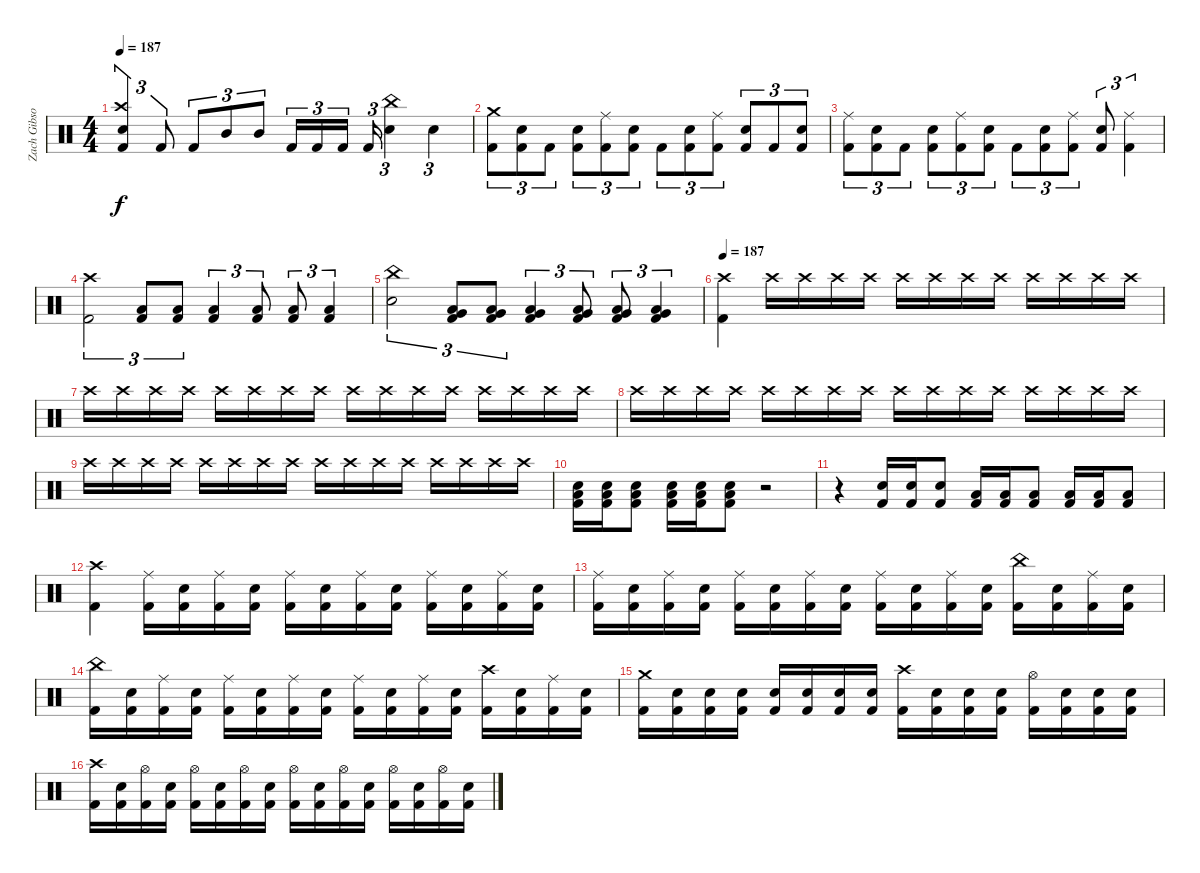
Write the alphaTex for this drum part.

\track ("Zach Gibson (Ex-Drums)" "Zach Gibso") {instrument percussion}
\staff {score}
\articulation defaults
\ts (4 4)
\tempo 187
\clef neutral
\ks c
("Snare (hit) 2" "Crash high (hit)" "Kick (hit) 2").4{tu (3 2) dy f} "Kick (hit) 2".8{tu (3 2)} "Kick (hit) 2".8{tu (3 2)} "Mid Tom (hit)".8{tu (3 2)} "Mid Tom (hit)".8{tu (3 2)} "Kick (hit) 2".16{tu (3 2)} "Kick (hit) 2".16{tu (3 2)} "Kick (hit) 2".16{tu (3 2)} "Kick (hit) 2".16{tu (3 2)} ("China (hit)" "Snare (hit) 2").4{tu (3 2)} "Snare (hit) 2".4{tu (3 2)} |
("Crash medium (hit)" "Kick (hit) 2").8{tu (3 2)} ("Snare (hit) 2" "Kick (hit) 2").8{tu (3 2)} "Kick (hit) 2".8{tu (3 2)} ("Snare (hit) 2" "Kick (hit) 2").8{tu (3 2)} ("Ride (middle)" "Kick (hit) 2").8{tu (3 2)} ("Snare (hit) 2" "Kick (hit) 2").8{tu (3 2)} "Kick (hit) 2".8{tu (3 2)} ("Snare (hit) 2" "Kick (hit) 2").8{tu (3 2)} ("Ride (middle)" "Kick (hit) 2").8{tu (3 2)} ("Snare (hit) 2" "Kick (hit) 2").8{tu (3 2)} "Kick (hit) 2".8{tu (3 2)} ("Snare (hit) 2" "Kick (hit) 2").8{tu (3 2)} |
("Ride (middle)" "Kick (hit) 2").8{tu (3 2)} ("Snare (hit) 2" "Kick (hit) 2").8{tu (3 2)} "Kick (hit) 2".8{tu (3 2)} ("Snare (hit) 2" "Kick (hit) 2").8{tu (3 2)} ("Ride (middle)" "Kick (hit) 2").8{tu (3 2)} ("Snare (hit) 2" "Kick (hit) 2").8{tu (3 2)} "Kick (hit) 2".8{tu (3 2)} ("Snare (hit) 2" "Kick (hit) 2").8{tu (3 2)} ("Ride (middle)" "Kick (hit) 2").8{tu (3 2)} ("Snare (hit) 2" "Kick (hit) 2").8{tu (3 2)} ("Ride (middle)" "Kick (hit) 2").4{tu (3 2)} |
("Crash high (hit)" "Kick (hit) 2").2{tu (3 2)} ("Low Floor Tom (hit)" "Kick (hit) 2").8{tu (3 2)} ("Low Floor Tom (hit)" "Kick (hit) 2").8{tu (3 2)} ("Low Floor Tom (hit)" "Kick (hit) 2").4{tu (3 2)} ("Low Floor Tom (hit)" "Kick (hit) 2").8{tu (3 2)} ("Low Floor Tom (hit)" "Kick (hit) 2").8{tu (3 2)} ("Low Floor Tom (hit)" "Kick (hit) 2").4{tu (3 2)} |
("China (hit)" "Snare (hit) 2").2{tu (3 2)} ("Very Low Tom (hit)" "Low Floor Tom (hit)" "Kick (hit) 2").8{tu (3 2)} ("Very Low Tom (hit)" "Low Floor Tom (hit)" "Kick (hit) 2").8{tu (3 2)} ("Very Low Tom (hit)" "Low Floor Tom (hit)" "Kick (hit) 2").4{tu (3 2)} ("Very Low Tom (hit)" "Low Floor Tom (hit)" "Kick (hit) 2").8{tu (3 2)} ("Very Low Tom (hit)" "Low Floor Tom (hit)" "Kick (hit) 2").8{tu (3 2)} ("Very Low Tom (hit)" "Low Floor Tom (hit)" "Kick (hit) 2").4{tu (3 2)} |
\tempo 187
("Crash high (hit)" "Kick (hit) 2").4 "Crash high (hit)".16 "Crash high (hit)".16 "Crash high (hit)".16 "Crash high (hit)".16 "Crash high (hit)".16 "Crash high (hit)".16 "Crash high (hit)".16 "Crash high (hit)".16 "Crash high (hit)".16 "Crash high (hit)".16 "Crash high (hit)".16 "Crash high (hit)".16 |
"Crash high (hit)".16 "Crash high (hit)".16 "Crash high (hit)".16 "Crash high (hit)".16 "Crash high (hit)".16 "Crash high (hit)".16 "Crash high (hit)".16 "Crash high (hit)".16 "Crash high (hit)".16 "Crash high (hit)".16 "Crash high (hit)".16 "Crash high (hit)".16 "Crash high (hit)".16 "Crash high (hit)".16 "Crash high (hit)".16 "Crash high (hit)".16 |
"Crash high (hit)".16 "Crash high (hit)".16 "Crash high (hit)".16 "Crash high (hit)".16 "Crash high (hit)".16 "Crash high (hit)".16 "Crash high (hit)".16 "Crash high (hit)".16 "Crash high (hit)".16 "Crash high (hit)".16 "Crash high (hit)".16 "Crash high (hit)".16 "Crash high (hit)".16 "Crash high (hit)".16 "Crash high (hit)".16 "Crash high (hit)".16 |
"Crash high (hit)".16 "Crash high (hit)".16 "Crash high (hit)".16 "Crash high (hit)".16 "Crash high (hit)".16 "Crash high (hit)".16 "Crash high (hit)".16 "Crash high (hit)".16 "Crash high (hit)".16 "Crash high (hit)".16 "Crash high (hit)".16 "Crash high (hit)".16 "Crash high (hit)".16 "Crash high (hit)".16 "Crash high (hit)".16 "Crash high (hit)".16 |
("Low Floor Tom (hit)" "Snare (hit) 2" "Kick (hit) 2").16 ("Low Floor Tom (hit)" "Snare (hit) 2" "Kick (hit) 2").16 ("Low Floor Tom (hit)" "Snare (hit) 2" "Kick (hit) 2").8 ("Low Floor Tom (hit)" "Snare (hit) 2" "Kick (hit) 2").16 ("Low Floor Tom (hit)" "Snare (hit) 2" "Kick (hit) 2").16 ("Low Floor Tom (hit)" "Snare (hit) 2" "Kick (hit) 2").8 r.2 |
r.4 ("Snare (hit) 2" "Kick (hit) 2").16 ("Snare (hit) 2" "Kick (hit) 2").16 ("Snare (hit) 2" "Kick (hit) 2").8 ("Low Tom (hit)" "Kick (hit) 2").16 ("Low Tom (hit)" "Kick (hit) 2").16 ("Low Tom (hit)" "Kick (hit) 2").8 ("Low Floor Tom (hit)" "Kick (hit) 2").16 ("Low Floor Tom (hit)" "Kick (hit) 2").16 ("Low Floor Tom (hit)" "Kick (hit) 2").8 |
("Crash high (hit)" "Kick (hit) 2").4 ("Ride (middle)" "Kick (hit) 2").16 ("Snare (hit) 2" "Kick (hit) 2").16 ("Ride (middle)" "Kick (hit) 2").16 ("Snare (hit) 2" "Kick (hit) 2").16 ("Ride (middle)" "Kick (hit) 2").16 ("Snare (hit) 2" "Kick (hit) 2").16 ("Ride (middle)" "Kick (hit) 2").16 ("Snare (hit) 2" "Kick (hit) 2").16 ("Ride (middle)" "Kick (hit) 2").16 ("Snare (hit) 2" "Kick (hit) 2").16 ("Ride (middle)" "Kick (hit) 2").16 ("Snare (hit) 2" "Kick (hit) 2").16 |
("Ride (middle)" "Kick (hit) 2").16 ("Snare (hit) 2" "Kick (hit) 2").16 ("Ride (middle)" "Kick (hit) 2").16 ("Snare (hit) 2" "Kick (hit) 2").16 ("Ride (middle)" "Kick (hit) 2").16 ("Snare (hit) 2" "Kick (hit) 2").16 ("Ride (middle)" "Kick (hit) 2").16 ("Snare (hit) 2" "Kick (hit) 2").16 ("Ride (middle)" "Kick (hit) 2").16 ("Snare (hit) 2" "Kick (hit) 2").16 ("Ride (middle)" "Kick (hit) 2").16 ("Snare (hit) 2" "Kick (hit) 2").16 ("China (hit)" "Kick (hit) 2").16 ("Snare (hit) 2" "Kick (hit) 2").16 ("Ride (middle)" "Kick (hit) 2").16 ("Snare (hit) 2" "Kick (hit) 2").16 |
("China (hit)" "Kick (hit) 2").16 ("Snare (hit) 2" "Kick (hit) 2").16 ("Ride (middle)" "Kick (hit) 2").16 ("Snare (hit) 2" "Kick (hit) 2").16 ("Ride (middle)" "Kick (hit) 2").16 ("Snare (hit) 2" "Kick (hit) 2").16 ("Ride (middle)" "Kick (hit) 2").16 ("Snare (hit) 2" "Kick (hit) 2").16 ("Ride (middle)" "Kick (hit) 2").16 ("Snare (hit) 2" "Kick (hit) 2").16 ("Ride (middle)" "Kick (hit) 2").16 ("Snare (hit) 2" "Kick (hit) 2").16 ("Crash high (hit)" "Kick (hit) 2").16 ("Snare (hit) 2" "Kick (hit) 2").16 ("Ride (middle)" "Kick (hit) 2").16 ("Snare (hit) 2" "Kick (hit) 2").16 |
("Crash medium (hit)" "Kick (hit) 2").16 ("Snare (hit) 2" "Kick (hit) 2").16 ("Snare (hit) 2" "Kick (hit) 2").16 ("Snare (hit) 2" "Kick (hit) 2").16 ("Snare (hit) 2" "Kick (hit) 2").16 ("Snare (hit) 2" "Kick (hit) 2").16 ("Snare (hit) 2" "Kick (hit) 2").16 ("Snare (hit) 2" "Kick (hit) 2").16 ("Crash high (hit)" "Kick (hit) 2").16 ("Snare (hit) 2" "Kick (hit) 2").16 ("Snare (hit) 2" "Kick (hit) 2").16 ("Snare (hit) 2" "Kick (hit) 2").16 ("Hi-Hat (open)" "Kick (hit) 2").16 ("Snare (hit) 2" "Kick (hit) 2").16 ("Snare (hit) 2" "Kick (hit) 2").16 ("Snare (hit) 2" "Kick (hit) 2").16 |
("Crash high (hit)" "Kick (hit) 2").16 ("Snare (hit) 2" "Kick (hit) 2").16 ("Hi-Hat (open)" "Kick (hit) 2").16 ("Snare (hit) 2" "Kick (hit) 2").16 ("Hi-Hat (open)" "Kick (hit) 2").16 ("Snare (hit) 2" "Kick (hit) 2").16 ("Hi-Hat (open)" "Kick (hit) 2").16 ("Snare (hit) 2" "Kick (hit) 2").16 ("Hi-Hat (open)" "Kick (hit) 2").16 ("Snare (hit) 2" "Kick (hit) 2").16 ("Hi-Hat (open)" "Kick (hit) 2").16 ("Snare (hit) 2" "Kick (hit) 2").16 ("Hi-Hat (open)" "Kick (hit) 2").16 ("Snare (hit) 2" "Kick (hit) 2").16 ("Hi-Hat (open)" "Kick (hit) 2").16 ("Snare (hit) 2" "Kick (hit) 2").16
